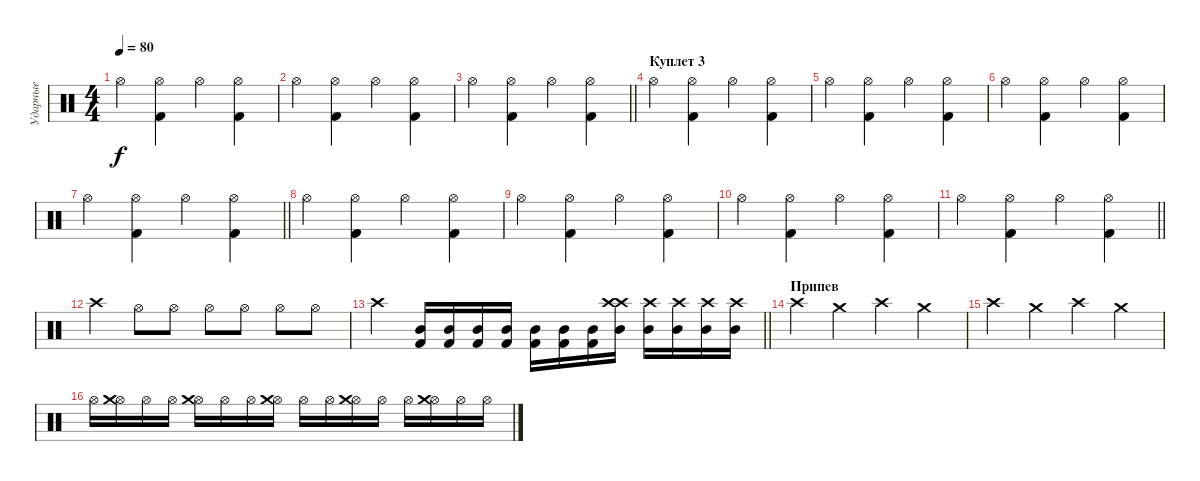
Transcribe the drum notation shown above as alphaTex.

\track ("Ударные" "Ударные") {instrument percussion}
\staff {score}
\articulation defaults
\ts (4 4)
\tempo 80
\clef neutral
\ks c "Hi-Hat (open)".4{dy f}
("Hi-Hat (open)" "Kick (hit) 2").4 "Hi-Hat (open)".4 ("Hi-Hat (open)" "Kick (hit) 2").4 |
"Hi-Hat (open)".4 ("Hi-Hat (open)" "Kick (hit) 2").4 "Hi-Hat (open)".4 ("Hi-Hat (open)" "Kick (hit) 2").4 |
\barLineRight lightlight "Hi-Hat (open)".4
("Hi-Hat (open)" "Kick (hit) 2").4 "Hi-Hat (open)".4 ("Hi-Hat (open)" "Kick (hit) 2").4 |
\section ("" "Куплет 3")
"Hi-Hat (open)".4 ("Hi-Hat (open)" "Kick (hit) 2").4 "Hi-Hat (open)".4 ("Hi-Hat (open)" "Kick (hit) 2").4 |
"Hi-Hat (open)".4 ("Hi-Hat (open)" "Kick (hit) 2").4 "Hi-Hat (open)".4 ("Hi-Hat (open)" "Kick (hit) 2").4 |
"Hi-Hat (open)".4 ("Hi-Hat (open)" "Kick (hit) 2").4 "Hi-Hat (open)".4 ("Hi-Hat (open)" "Kick (hit) 2").4 |
\barLineRight lightlight "Hi-Hat (open)".4
("Hi-Hat (open)" "Kick (hit) 2").4 "Hi-Hat (open)".4 ("Hi-Hat (open)" "Kick (hit) 2").4 |
"Hi-Hat (open)".4 ("Hi-Hat (open)" "Kick (hit) 2").4 "Hi-Hat (open)".4 ("Hi-Hat (open)" "Kick (hit) 2").4 |
"Hi-Hat (open)".4 ("Hi-Hat (open)" "Kick (hit) 2").4 "Hi-Hat (open)".4 ("Hi-Hat (open)" "Kick (hit) 2").4 |
"Hi-Hat (open)".4 ("Hi-Hat (open)" "Kick (hit) 2").4 "Hi-Hat (open)".4 ("Hi-Hat (open)" "Kick (hit) 2").4 |
\barLineRight lightlight "Hi-Hat (open)".4
("Hi-Hat (open)" "Kick (hit) 2").4 "Hi-Hat (open)".4 ("Hi-Hat (open)" "Kick (hit) 2").4 |
"Crash high (hit)".4 "Hi-Hat (open)".8 "Hi-Hat (open)".8 "Hi-Hat (open)".8 "Hi-Hat (open)".8 "Hi-Hat (open)".8 "Hi-Hat (open)".8 |
\barLineRight lightlight "Crash high (hit)".4
("Kick (hit) 2" "Mid Tom (hit)").16 ("Kick (hit) 2" "Mid Tom (hit)").16 ("Kick (hit) 2" "Mid Tom (hit)").16 ("Kick (hit) 2" "Mid Tom (hit)").16 ("Kick (hit) 2" "Mid Tom (hit)").16 ("Kick (hit) 2" "Mid Tom (hit)").16 ("Kick (hit) 2" "Mid Tom (hit)").16 ("Crash high (hit)" "Crash high (hit)" "Mid Tom (hit)").16 ("Crash high (hit)" "Mid Tom (hit)").16 ("Crash high (hit)" "Mid Tom (hit)").16 ("Crash high (hit)" "Mid Tom (hit)").16 ("Crash high (hit)" "Mid Tom (hit)").16 |
\section ("" "Припев")
"Crash high (hit)".4 "Crash medium (hit)".4 "Crash high (hit)".4 "Crash medium (hit)".4 |
"Crash high (hit)".4 "Crash medium (hit)".4 "Crash high (hit)".4 "Crash medium (hit)".4 |
"Hi-Hat (open)".16 ("Hi-Hat (open)" "Crash medium (hit)").16 "Hi-Hat (open)".16 "Hi-Hat (open)".16 ("Hi-Hat (open)" "Crash medium (hit)").16 "Hi-Hat (open)".16 "Hi-Hat (open)".16 ("Hi-Hat (open)" "Crash medium (hit)").16 "Hi-Hat (open)".16 "Hi-Hat (open)".16 ("Hi-Hat (open)" "Crash medium (hit)").16 "Hi-Hat (open)".16 "Hi-Hat (open)".16 ("Hi-Hat (open)" "Crash medium (hit)").16 "Hi-Hat (open)".16 "Hi-Hat (open)".16
